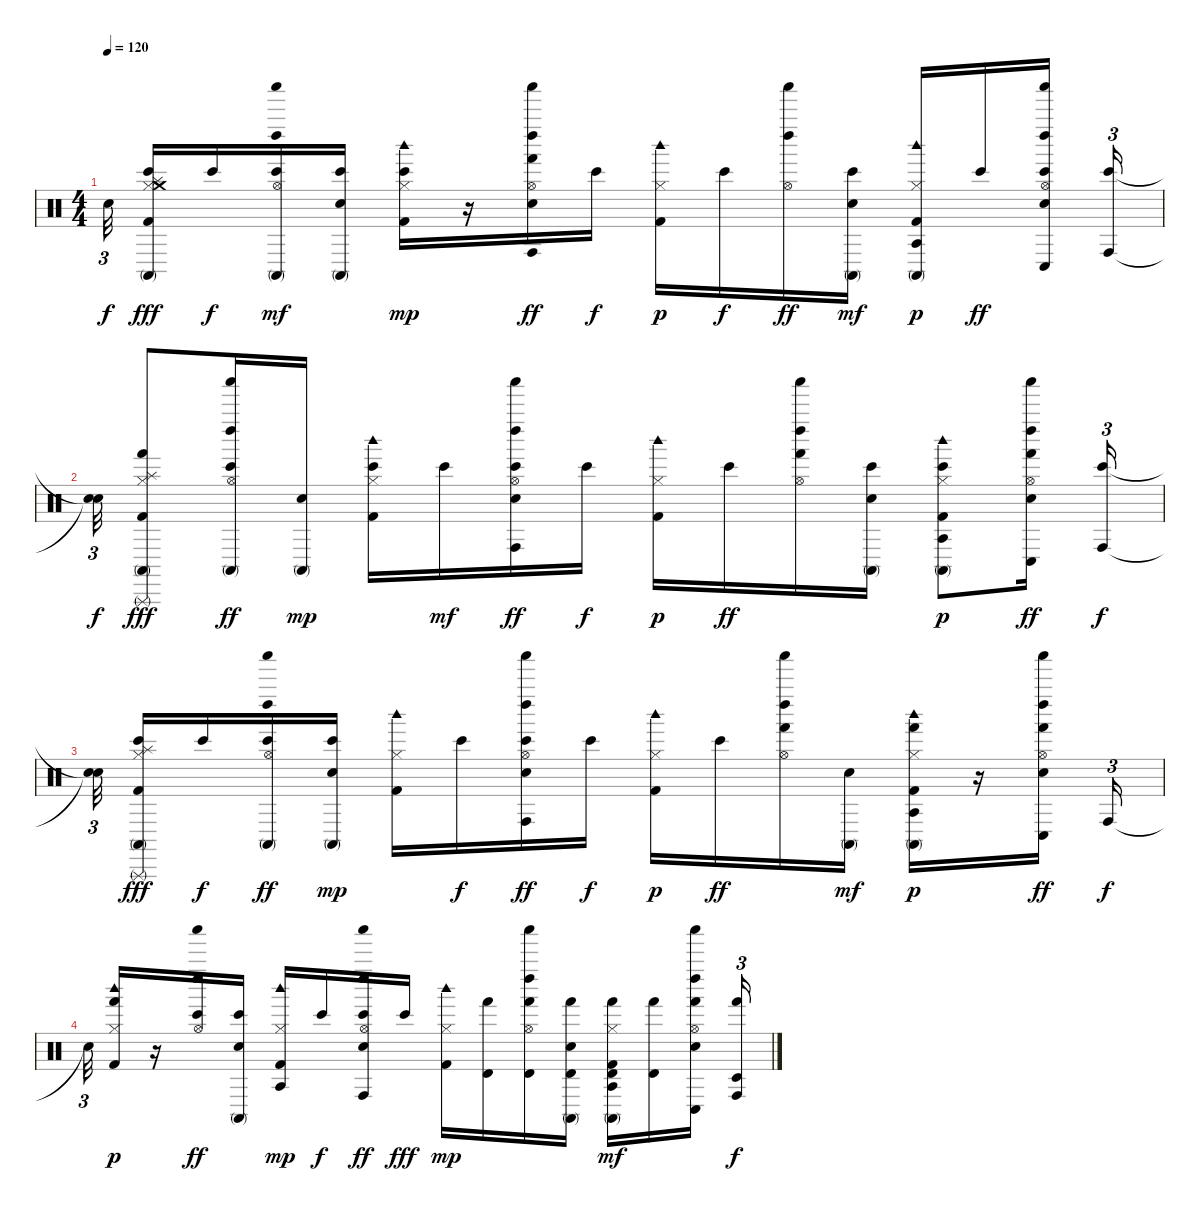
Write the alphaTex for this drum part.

\track "" {instrument percussion}
\staff {score}
\articulation defaults
\ts (4 4)
\tempo 120
\clef neutral
\ks c "Snare (hit)"{t}.32{tu (3 2) dy f beam splitsecondary}
("Kick (hit) 2" "Conga high (mute)" "Hi-Hat (closed)" "Crash medium (hit)" "Bongo High (hit)" "Splash (hit)").16{dy fff} "Bongo High (hit)".16{dy f} ("Shaker (hit)" "Left Maraca (hit)" "Conga high (mute)" "Hi-Hat (open)" "Bongo High (hit)").16{dy mf} ("Electric Snare (hit)" "Conga high (mute)" "Bongo High (hit)").16 ("Kick (hit) 2" "Hi-Hat (closed)" "Bongo High (hit)" "Woodblock high (hit)").16{dy mp} r.16 ("Shaker (hit)" "Left Maraca (hit)" "Electric Snare (hit)" "Conga high (hit)" "Hi-Hat (open)" "Hand (hit)").16{dy ff} "Bongo High (hit)".16{dy f} ("Kick (hit) 2" "Hi-Hat (closed)" "Woodblock high (hit)").16{dy p} "Bongo High (hit)".16{dy f} ("Shaker (hit)" "Left Maraca (hit)" "Hi-Hat (open)").16{dy ff} ("Electric Snare (hit)" "Conga high (mute)" "Bongo High (hit)").16{dy mf} ("Kick (hit) 2" "Conga high (mute)" "Hi-Hat (closed)" "Agogo tow (hit)" "Woodblock high (hit)").16{dy p} "Bongo High (hit)".16{dy ff} ("Shaker (hit)" "Left Maraca (hit)" "Electric Snare (hit)" "Conga low (hit)" "Hi-Hat (open)" "Bongo High (hit)").16{beam splitsecondary} ("Conga high (hit)" "Bongo High (hit)").16{tu (3 2)} |
("Snare (hit)"{t} "Snare (hit)"{t}).32{tu (3 2) dy f} ("Kick (hit) 2" "Conga high (mute)" "Hi-Hat (closed)" "Hand (hit)" "Splash (hit)" "Triangle (rnute)").8{dy fff} ("Shaker (hit)" "Left Maraca (hit)" "Conga high (mute)" "Hi-Hat (open)" "Bongo High (hit)").16{dy ff} ("Electric Snare (hit)" "Conga high (mute)").16{dy mp} ("Kick (hit) 2" "Hi-Hat (closed)" "Bongo High (hit)" "Woodblock high (hit)").16 "Bongo High (hit)".16{dy mf} ("Shaker (hit)" "Left Maraca (hit)" "Electric Snare (hit)" "Conga high (hit)" "Hi-Hat (open)" "Bongo High (hit)").16{dy ff} "Bongo High (hit)".16{dy f} ("Kick (hit) 2" "Hi-Hat (closed)" "Woodblock high (hit)").16{dy p} "Bongo High (hit)".16{dy ff} ("Shaker (hit)" "Left Maraca (hit)" "Hi-Hat (open)" "Hand (hit)").16 ("Electric Snare (hit)" "Conga high (mute)" "Bongo High (hit)").16 ("Kick (hit) 2" "Conga high (mute)" "Hi-Hat (closed)" "Bongo High (hit)" "Agogo tow (hit)" "Woodblock high (hit)").8{dy p} ("Shaker (hit)" "Left Maraca (hit)" "Electric Snare (hit)" "Conga low (hit)" "Hi-Hat (open)" "Hand (hit)").16{dy ff} ("Conga high (hit)" "Bongo High (hit)").16{tu (3 2) dy f} |
("Snare (hit)"{t} "Snare (hit)"{t}).32{tu (3 2) beam splitsecondary} ("Kick (hit) 2" "Conga high (mute)" "Hi-Hat (closed)" "Bongo High (hit)" "Splash (hit)" "Triangle (rnute)").16{dy fff} "Bongo High (hit)".16{dy f} ("Shaker (hit)" "Left Maraca (hit)" "Conga high (mute)" "Hi-Hat (open)" "Bongo High (hit)").16{dy ff} ("Electric Snare (hit)" "Conga high (mute)" "Bongo High (hit)").16{dy mp} ("Kick (hit) 2" "Hi-Hat (closed)" "Woodblock high (hit)").16 "Bongo High (hit)".16{dy f} ("Shaker (hit)" "Left Maraca (hit)" "Electric Snare (hit)" "Conga high (hit)" "Hi-Hat (open)" "Bongo High (hit)").16{dy ff} "Bongo High (hit)".16{dy f} ("Kick (hit) 2" "Hi-Hat (closed)" "Woodblock high (hit)").16{dy p} "Bongo High (hit)".16{dy ff} ("Shaker (hit)" "Left Maraca (hit)" "Hi-Hat (open)" "Hand (hit)").16 ("Electric Snare (hit)" "Conga high (mute)").16{dy mf} ("Kick (hit) 2" "Conga high (mute)" "Hi-Hat (closed)" "Hand (hit)" "Agogo tow (hit)" "Woodblock high (hit)").16{dy p} r.16 ("Shaker (hit)" "Left Maraca (hit)" "Electric Snare (hit)" "Conga low (hit)" "Hi-Hat (open)" "Hand (hit)").16{dy ff} "Conga high (hit)".16{tu (3 2) dy f} |
"Snare (hit)"{t}.32{tu (3 2)} ("Kick (hit) 2" "Hi-Hat (closed)" "Hand (hit)" "Woodblock high (hit)").16{dy p} r.16 ("Shaker (hit)" "Left Maraca (hit)" "Hi-Hat (open)" "Bongo High (hit)").16{dy ff} ("Electric Snare (hit)" "Conga high (mute)" "Bongo High (hit)").16 ("Kick (hit) 2" "Hi-Hat (closed)" "Agogo tow (hit)" "Woodblock high (hit)").16{dy mp} "Bongo High (hit)".16{dy f} ("Shaker (hit)" "Left Maraca (hit)" "Electric Snare (hit)" "Conga high (hit)" "Hi-Hat (open)" "Bongo High (hit)").16{dy ff} "Bongo High (hit)".16{dy fff} ("Kick (hit) 2" "Hi-Hat (closed)" "Woodblock high (hit)").16{dy mp} ("Hand (hit)" "Timbale high (hit)").16 ("Shaker (hit)" "Left Maraca (hit)" "Hi-Hat (open)" "Hand (hit)" "Timbale high (hit)").16 ("Electric Snare (hit)" "Conga high (mute)" "Hand (hit)" "Timbale high (hit)").16 ("Kick (hit) 2" "Conga high (mute)" "Hi-Hat (closed)" "Hand (hit)" "Timbale high (hit)" "Agogo tow (hit)").16{dy mf} ("Hand (hit)" "Timbale high (hit)").16 ("Shaker (hit)" "Left Maraca (hit)" "Electric Snare (hit)" "Conga low (hit)" "Hi-Hat (open)" "Hand (hit)").16{beam splitsecondary} ("Conga high (hit)" "Hand (hit)" "Timbale low (hit)").16{tu (3 2) dy f}
